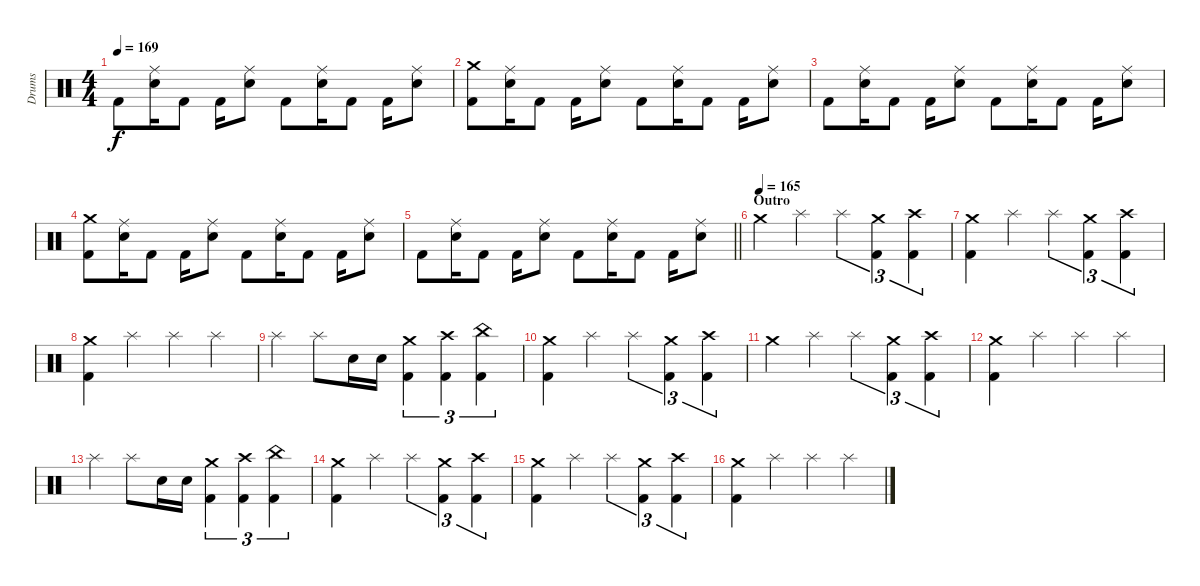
\track ("Drums" "Drums") {instrument percussion}
\staff {score}
\articulation defaults
\ts (4 4)
\tempo 169
\clef neutral
\ks c "Kick (hit) 2".8{dy f}
("Electric Snare (hit)" "Ride (middle)").16 "Kick (hit) 2".8 "Kick (hit) 2".16 ("Electric Snare (hit)" "Ride (middle)").8 "Kick (hit) 2".8 ("Electric Snare (hit)" "Ride (middle)").16 "Kick (hit) 2".8 "Kick (hit) 2".16 ("Electric Snare (hit)" "Ride (middle)").8 |
("Kick (hit) 2" "Crash medium (hit)").8 ("Electric Snare (hit)" "Ride (middle)").16 "Kick (hit) 2".8 "Kick (hit) 2".16 ("Electric Snare (hit)" "Ride (middle)").8 "Kick (hit) 2".8 ("Electric Snare (hit)" "Ride (middle)").16 "Kick (hit) 2".8 "Kick (hit) 2".16 ("Electric Snare (hit)" "Ride (middle)").8 |
"Kick (hit) 2".8 ("Electric Snare (hit)" "Ride (middle)").16 "Kick (hit) 2".8 "Kick (hit) 2".16 ("Electric Snare (hit)" "Ride (middle)").8 "Kick (hit) 2".8 ("Electric Snare (hit)" "Ride (middle)").16 "Kick (hit) 2".8 "Kick (hit) 2".16 ("Electric Snare (hit)" "Ride (middle)").8 |
("Kick (hit) 2" "Crash medium (hit)").8 ("Electric Snare (hit)" "Ride (middle)").16 "Kick (hit) 2".8 "Kick (hit) 2".16 ("Electric Snare (hit)" "Ride (middle)").8 "Kick (hit) 2".8 ("Electric Snare (hit)" "Ride (middle)").16 "Kick (hit) 2".8 "Kick (hit) 2".16 ("Electric Snare (hit)" "Ride (middle)").8 |
\barLineRight lightlight "Kick (hit) 2".8
("Electric Snare (hit)" "Ride (middle)").16 "Kick (hit) 2".8 "Kick (hit) 2".16 ("Electric Snare (hit)" "Ride (middle)").8 "Kick (hit) 2".8 ("Electric Snare (hit)" "Ride (middle)").16 "Kick (hit) 2".8 "Kick (hit) 2".16 ("Electric Snare (hit)" "Ride (middle)").8 |
\section ("" "Outro")
\tempo (165)
"Crash medium (hit)".4 "Splash (hit)".4 "Splash (hit)".4{tu (3 2)} ("Kick (hit) 2" "Crash medium (hit)").4{tu (3 2)} ("Kick (hit) 2" "Crash high (hit)").4{tu (3 2)} |
("Kick (hit) 2" "Crash medium (hit)").4 "Splash (hit)".4 "Splash (hit)".4{tu (3 2)} ("Kick (hit) 2" "Crash medium (hit)").4{tu (3 2)} ("Kick (hit) 2" "Crash high (hit)").4{tu (3 2)} |
("Kick (hit) 2" "Crash medium (hit)").4 "Splash (hit)".4 "Splash (hit)".4 "Splash (hit)".4 |
"Splash (hit)".4 "Splash (hit)".8 "Electric Snare (hit)".16 "Electric Snare (hit)".16 ("Kick (hit) 2" "Crash medium (hit)").4{tu (3 2)} ("Kick (hit) 2" "Crash high (hit)").4{tu (3 2)} ("Kick (hit) 2" "China (hit)").4{tu (3 2)} |
("Kick (hit) 2" "Crash medium (hit)").4 "Splash (hit)".4 "Splash (hit)".4{tu (3 2)} ("Kick (hit) 2" "Crash medium (hit)").4{tu (3 2)} ("Kick (hit) 2" "Crash high (hit)").4{tu (3 2)} |
"Crash medium (hit)".4 "Splash (hit)".4 "Splash (hit)".4{tu (3 2)} ("Kick (hit) 2" "Crash medium (hit)").4{tu (3 2)} ("Kick (hit) 2" "Crash high (hit)").4{tu (3 2)} |
("Kick (hit) 2" "Crash medium (hit)").4 "Splash (hit)".4 "Splash (hit)".4 "Splash (hit)".4 |
"Splash (hit)".4 "Splash (hit)".8 "Electric Snare (hit)".16 "Electric Snare (hit)".16 ("Kick (hit) 2" "Crash medium (hit)").4{tu (3 2)} ("Kick (hit) 2" "Crash high (hit)").4{tu (3 2)} ("Kick (hit) 2" "China (hit)").4{tu (3 2)} |
("Kick (hit) 2" "Crash medium (hit)").4 "Splash (hit)".4 "Splash (hit)".4{tu (3 2)} ("Kick (hit) 2" "Crash medium (hit)").4{tu (3 2)} ("Kick (hit) 2" "Crash high (hit)").4{tu (3 2)} |
("Kick (hit) 2" "Crash medium (hit)").4 "Splash (hit)".4 "Splash (hit)".4{tu (3 2)} ("Kick (hit) 2" "Crash medium (hit)").4{tu (3 2)} ("Kick (hit) 2" "Crash high (hit)").4{tu (3 2)} |
("Kick (hit) 2" "Crash medium (hit)").4 "Splash (hit)".4 "Splash (hit)".4 "Splash (hit)".4
